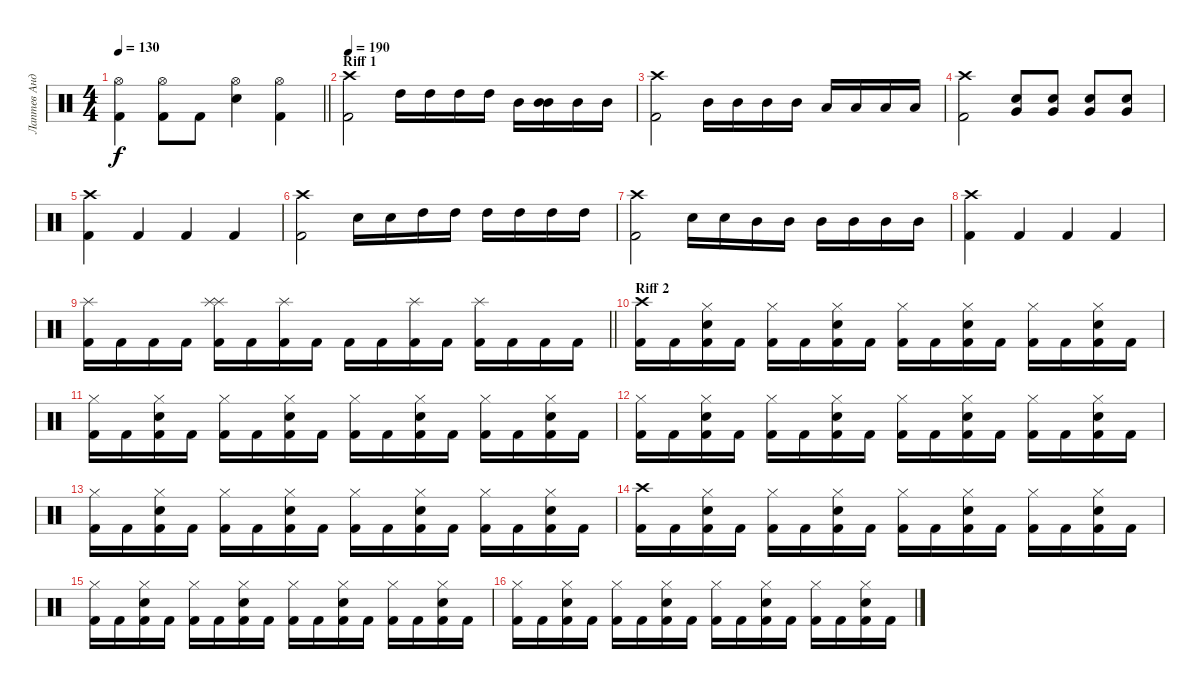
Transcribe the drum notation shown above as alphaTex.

\track ("Лаптев Андрей" "Лаптев Анд") {instrument percussion}
\staff {score}
\articulation defaults
\ts (4 4)
\tempo 130
\clef neutral
\barLineRight lightlight
\ks c
("Hi-Hat (open)" "Kick (hit) 2").4{dy f} ("Hi-Hat (open)" "Kick (hit) 2").8 "Kick (hit) 2".8 ("Electric Snare (hit)" "Hi-Hat (open)").4 ("Hi-Hat (open)" "Kick (hit) 2").4 |
\section ("" "Riff 1")
\tempo 190
("Crash high (hit)" "Kick (hit) 2").2 "High Tom (hit)".16 "High Tom (hit)".16 "High Tom (hit)".16 "High Tom (hit)".16 "Mid Tom (hit)".16 ("Mid Tom (hit)" "Mid Tom (hit)").16 "Mid Tom (hit)".16 "Mid Tom (hit)".16 |
("Crash high (hit)" "Kick (hit) 2").2 "Mid Tom (hit)".16 "Mid Tom (hit)".16 "Mid Tom (hit)".16 "Mid Tom (hit)".16 "Low Tom (hit)".16 "Low Tom (hit)".16 "Low Tom (hit)".16 "Low Tom (hit)".16 |
("Crash high (hit)" "Kick (hit) 2").2 ("Electric Snare (hit)" "Very Low Tom (hit)").8 ("Electric Snare (hit)" "Very Low Tom (hit)").8 ("Electric Snare (hit)" "Very Low Tom (hit)").8 ("Very Low Tom (hit)" "Electric Snare (hit)").8 |
("Crash high (hit)" "Kick (hit) 2").4 "Kick (hit) 2".4 "Kick (hit) 2".4 "Kick (hit) 2".4 |
("Crash high (hit)" "Kick (hit) 2").2 "Electric Snare (hit)".16 "Electric Snare (hit)".16 "High Tom (hit)".16 "High Tom (hit)".16 "High Tom (hit)".16 "High Tom (hit)".16 "High Tom (hit)".16 "High Tom (hit)".16 |
("Crash high (hit)" "Kick (hit) 2").2 "Electric Snare (hit)".16 "Electric Snare (hit)".16 "Mid Tom (hit)".16 "Mid Tom (hit)".16 "Mid Tom (hit)".16 "Mid Tom (hit)".16 "Mid Tom (hit)".16 "Mid Tom (hit)".16 |
("Crash high (hit)" "Kick (hit) 2").4 "Kick (hit) 2".4 "Kick (hit) 2".4 "Kick (hit) 2".4 |
\barLineRight lightlight
("Splash (hit)" "Kick (hit) 2").16 "Kick (hit) 2".16 "Kick (hit) 2".16 "Kick (hit) 2".16 ("Splash (hit)" "Splash (hit)" "Kick (hit) 2").16 "Kick (hit) 2".16 ("Splash (hit)" "Kick (hit) 2").16 "Kick (hit) 2".16 "Kick (hit) 2".16 "Kick (hit) 2".16 ("Splash (hit)" "Kick (hit) 2").16 "Kick (hit) 2".16 ("Splash (hit)" "Kick (hit) 2").16 "Kick (hit) 2".16 "Kick (hit) 2".16 "Kick (hit) 2".16 |
\section ("" "Riff 2")
("Crash high (hit)" "Kick (hit) 2").16 "Kick (hit) 2".16 ("Electric Snare (hit)" "Hi-Hat (closed)" "Kick (hit) 2").16 "Kick (hit) 2".16 ("Hi-Hat (closed)" "Kick (hit) 2").16 "Kick (hit) 2".16 ("Hi-Hat (closed)" "Electric Snare (hit)" "Kick (hit) 2").16 "Kick (hit) 2".16 ("Hi-Hat (closed)" "Kick (hit) 2").16 "Kick (hit) 2".16 ("Hi-Hat (closed)" "Electric Snare (hit)" "Kick (hit) 2").16 "Kick (hit) 2".16 ("Hi-Hat (closed)" "Kick (hit) 2").16 "Kick (hit) 2".16 ("Hi-Hat (closed)" "Electric Snare (hit)" "Kick (hit) 2").16 "Kick (hit) 2".16 |
("Hi-Hat (closed)" "Kick (hit) 2").16 "Kick (hit) 2".16 ("Electric Snare (hit)" "Hi-Hat (closed)" "Kick (hit) 2").16 "Kick (hit) 2".16 ("Hi-Hat (closed)" "Kick (hit) 2").16 "Kick (hit) 2".16 ("Hi-Hat (closed)" "Electric Snare (hit)" "Kick (hit) 2").16 "Kick (hit) 2".16 ("Hi-Hat (closed)" "Kick (hit) 2").16 "Kick (hit) 2".16 ("Hi-Hat (closed)" "Electric Snare (hit)" "Kick (hit) 2").16 "Kick (hit) 2".16 ("Hi-Hat (closed)" "Kick (hit) 2").16 "Kick (hit) 2".16 ("Hi-Hat (closed)" "Electric Snare (hit)" "Kick (hit) 2").16 "Kick (hit) 2".16 |
("Hi-Hat (closed)" "Kick (hit) 2").16 "Kick (hit) 2".16 ("Electric Snare (hit)" "Hi-Hat (closed)" "Kick (hit) 2").16 "Kick (hit) 2".16 ("Hi-Hat (closed)" "Kick (hit) 2").16 "Kick (hit) 2".16 ("Hi-Hat (closed)" "Electric Snare (hit)" "Kick (hit) 2").16 "Kick (hit) 2".16 ("Hi-Hat (closed)" "Kick (hit) 2").16 "Kick (hit) 2".16 ("Hi-Hat (closed)" "Electric Snare (hit)" "Kick (hit) 2").16 "Kick (hit) 2".16 ("Hi-Hat (closed)" "Kick (hit) 2").16 "Kick (hit) 2".16 ("Hi-Hat (closed)" "Electric Snare (hit)" "Kick (hit) 2").16 "Kick (hit) 2".16 |
("Hi-Hat (closed)" "Kick (hit) 2").16 "Kick (hit) 2".16 ("Electric Snare (hit)" "Hi-Hat (closed)" "Kick (hit) 2").16 "Kick (hit) 2".16 ("Hi-Hat (closed)" "Kick (hit) 2").16 "Kick (hit) 2".16 ("Hi-Hat (closed)" "Electric Snare (hit)" "Kick (hit) 2").16 "Kick (hit) 2".16 ("Hi-Hat (closed)" "Kick (hit) 2").16 "Kick (hit) 2".16 ("Hi-Hat (closed)" "Electric Snare (hit)" "Kick (hit) 2").16 "Kick (hit) 2".16 ("Hi-Hat (closed)" "Kick (hit) 2").16 "Kick (hit) 2".16 ("Hi-Hat (closed)" "Electric Snare (hit)" "Kick (hit) 2").16 "Kick (hit) 2".16 |
("Crash high (hit)" "Kick (hit) 2").16 "Kick (hit) 2".16 ("Electric Snare (hit)" "Hi-Hat (closed)" "Kick (hit) 2").16 "Kick (hit) 2".16 ("Hi-Hat (closed)" "Kick (hit) 2").16 "Kick (hit) 2".16 ("Hi-Hat (closed)" "Electric Snare (hit)" "Kick (hit) 2").16 "Kick (hit) 2".16 ("Hi-Hat (closed)" "Kick (hit) 2").16 "Kick (hit) 2".16 ("Hi-Hat (closed)" "Electric Snare (hit)" "Kick (hit) 2").16 "Kick (hit) 2".16 ("Hi-Hat (closed)" "Kick (hit) 2").16 "Kick (hit) 2".16 ("Hi-Hat (closed)" "Electric Snare (hit)" "Kick (hit) 2").16 "Kick (hit) 2".16 |
("Hi-Hat (closed)" "Kick (hit) 2").16 "Kick (hit) 2".16 ("Electric Snare (hit)" "Hi-Hat (closed)" "Kick (hit) 2").16 "Kick (hit) 2".16 ("Hi-Hat (closed)" "Kick (hit) 2").16 "Kick (hit) 2".16 ("Hi-Hat (closed)" "Electric Snare (hit)" "Kick (hit) 2").16 "Kick (hit) 2".16 ("Hi-Hat (closed)" "Kick (hit) 2").16 "Kick (hit) 2".16 ("Hi-Hat (closed)" "Electric Snare (hit)" "Kick (hit) 2").16 "Kick (hit) 2".16 ("Hi-Hat (closed)" "Kick (hit) 2").16 "Kick (hit) 2".16 ("Hi-Hat (closed)" "Electric Snare (hit)" "Kick (hit) 2").16 "Kick (hit) 2".16 |
("Hi-Hat (closed)" "Kick (hit) 2").16 "Kick (hit) 2".16 ("Electric Snare (hit)" "Hi-Hat (closed)" "Kick (hit) 2").16 "Kick (hit) 2".16 ("Hi-Hat (closed)" "Kick (hit) 2").16 "Kick (hit) 2".16 ("Hi-Hat (closed)" "Electric Snare (hit)" "Kick (hit) 2").16 "Kick (hit) 2".16 ("Hi-Hat (closed)" "Kick (hit) 2").16 "Kick (hit) 2".16 ("Hi-Hat (closed)" "Electric Snare (hit)" "Kick (hit) 2").16 "Kick (hit) 2".16 ("Hi-Hat (closed)" "Kick (hit) 2").16 "Kick (hit) 2".16 ("Hi-Hat (closed)" "Electric Snare (hit)" "Kick (hit) 2").16 "Kick (hit) 2".16
